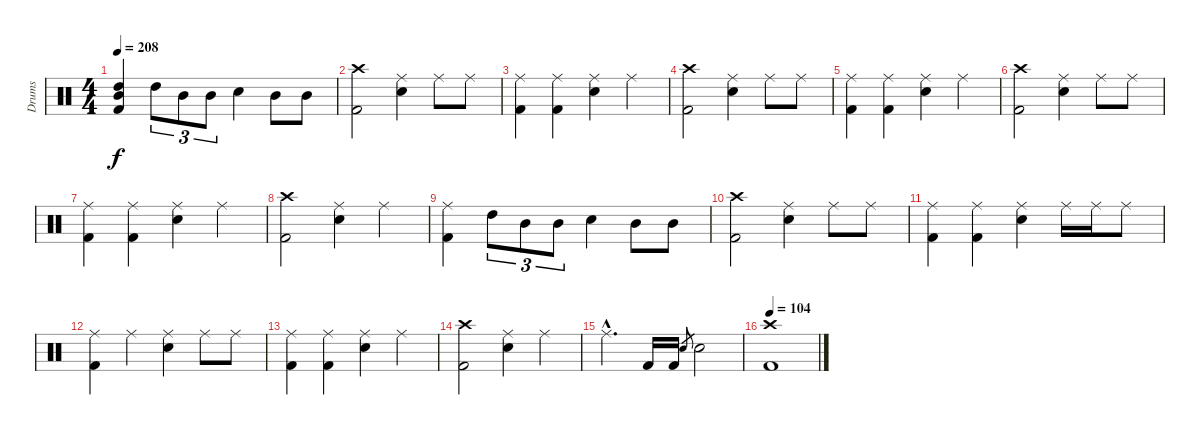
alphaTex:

\track ("Drums" "Drums") {instrument percussion}
\staff {score}
\articulation defaults
\ts (4 4)
\tempo 208
\clef neutral
\ks c
("High Tom (hit)" "Mid Tom (hit)" "Kick (hit) 2").4{dy f} "High Tom (hit)".8{tu (3 2)} "Mid Tom (hit)".8{tu (3 2)} "Mid Tom (hit)".8{tu (3 2)} "Electric Snare (hit)".4 "Mid Tom (hit)".8 "Mid Tom (hit)".8 |
("Crash high (hit)" "Kick (hit) 2").2 ("Ride (middle)" "Electric Snare (hit)").4 "Ride (middle)".8 "Ride (middle)".8 |
("Ride (middle)" "Kick (hit) 2").4 ("Ride (middle)" "Kick (hit) 2").4 ("Ride (middle)" "Electric Snare (hit)").4 "Ride (middle)".4 |
("Crash high (hit)" "Kick (hit) 2").2 ("Ride (middle)" "Electric Snare (hit)").4 "Ride (middle)".8 "Ride (middle)".8 |
("Ride (middle)" "Kick (hit) 2").4 ("Ride (middle)" "Kick (hit) 2").4 ("Ride (middle)" "Electric Snare (hit)").4 "Ride (middle)".4 |
("Crash high (hit)" "Kick (hit) 2").2 ("Ride (middle)" "Electric Snare (hit)").4 "Ride (middle)".8 "Ride (middle)".8 |
("Ride (middle)" "Kick (hit) 2").4 ("Ride (middle)" "Kick (hit) 2").4 ("Ride (middle)" "Electric Snare (hit)").4 "Ride (middle)".4 |
("Crash high (hit)" "Kick (hit) 2").2 ("Ride (middle)" "Electric Snare (hit)").4 "Ride (middle)".4 |
("Ride (middle)" "Kick (hit) 2").4 "High Tom (hit)".8{tu (3 2)} "Mid Tom (hit)".8{tu (3 2)} "Mid Tom (hit)".8{tu (3 2)} "Electric Snare (hit)".4 "Mid Tom (hit)".8 "Mid Tom (hit)".8 |
("Crash high (hit)" "Kick (hit) 2").2 ("Ride (middle)" "Electric Snare (hit)").4 "Ride (middle)".8 "Ride (middle)".8 |
("Ride (middle)" "Kick (hit) 2").4 ("Ride (middle)" "Kick (hit) 2").4 ("Ride (middle)" "Electric Snare (hit)").4 "Ride (middle)".16 "Ride (middle)".16 "Ride (middle)".8 |
("Ride (middle)" "Kick (hit) 2").4 "Ride (middle)".4 ("Ride (middle)" "Electric Snare (hit)").4 "Ride (middle)".8 "Ride (middle)".8 |
("Ride (middle)" "Kick (hit) 2").4 ("Ride (middle)" "Kick (hit) 2").4 ("Ride (middle)" "Electric Snare (hit)").4 "Ride (middle)".4 |
("Crash high (hit)" "Kick (hit) 2").2 ("Ride (middle)" "Electric Snare (hit)").4 "Ride (middle)".4 |
"Ride (middle)"{hac}.4{d} "Kick (hit) 2".16 "Kick (hit) 2".16 "Electric Snare (hit)".8{gr} "Electric Snare (hit)".2 |
\tempo 104
("Crash high (hit)" "Kick (hit) 2").1
